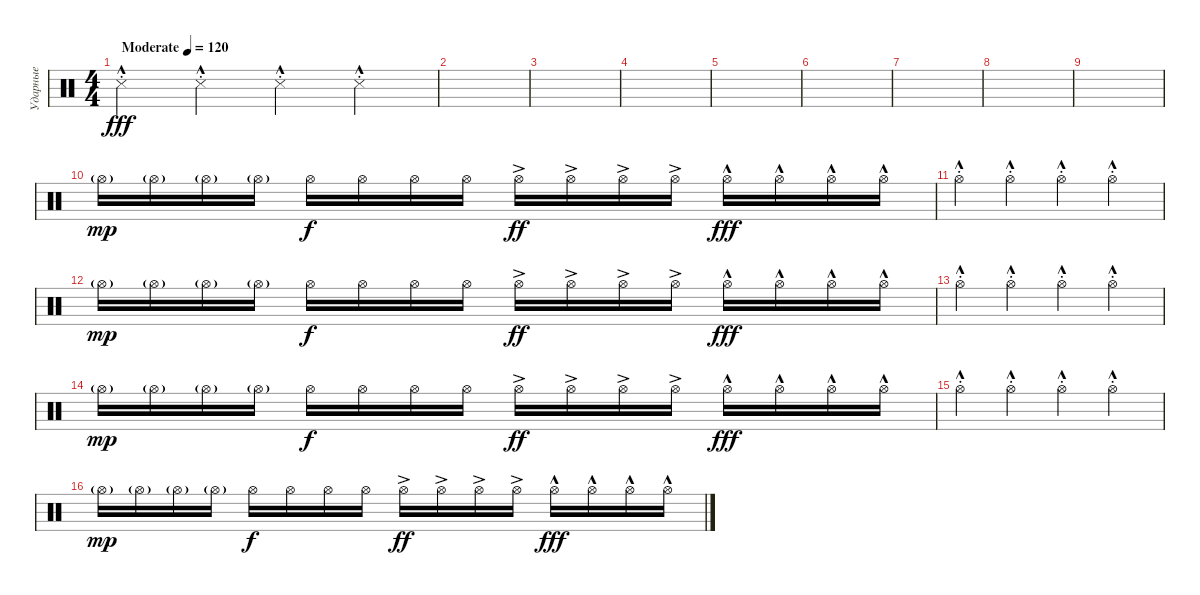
\track ("Ударные" "Ударные") {instrument percussion}
\staff {score}
\articulation defaults
\ts (4 4)
\tempo (120 "Moderate")
\clef neutral
\ks c "Snare (side stick) 3"{hac st}.4{dy fff} "Snare (side stick) 3"{hac st}.4 "Snare (side stick) 3"{hac st}.4 "Snare (side stick) 3"{hac st}.4
|
|
|
|
|
|
|
|
|
"Hi-Hat (open)"{g}.16{dy mp} "Hi-Hat (open)"{g}.16 "Hi-Hat (open)"{g}.16 "Hi-Hat (open)"{g}.16 "Hi-Hat (open)".16{dy f} "Hi-Hat (open)".16 "Hi-Hat (open)".16 "Hi-Hat (open)".16 "Hi-Hat (open)"{ac}.16{dy ff} "Hi-Hat (open)"{ac}.16 "Hi-Hat (open)"{ac}.16 "Hi-Hat (open)"{ac}.16 "Hi-Hat (open)"{hac}.16{dy fff} "Hi-Hat (open)"{hac}.16 "Hi-Hat (open)"{hac}.16 "Hi-Hat (open)"{hac}.16 |
"Hi-Hat (open)"{hac st}.4 "Hi-Hat (open)"{hac st}.4 "Hi-Hat (open)"{hac st}.4 "Hi-Hat (open)"{hac st}.4 |
"Hi-Hat (open)"{g}.16{dy mp} "Hi-Hat (open)"{g}.16 "Hi-Hat (open)"{g}.16 "Hi-Hat (open)"{g}.16 "Hi-Hat (open)".16{dy f} "Hi-Hat (open)".16 "Hi-Hat (open)".16 "Hi-Hat (open)".16 "Hi-Hat (open)"{ac}.16{dy ff} "Hi-Hat (open)"{ac}.16 "Hi-Hat (open)"{ac}.16 "Hi-Hat (open)"{ac}.16 "Hi-Hat (open)"{hac}.16{dy fff} "Hi-Hat (open)"{hac}.16 "Hi-Hat (open)"{hac}.16 "Hi-Hat (open)"{hac}.16 |
"Hi-Hat (open)"{hac st}.4 "Hi-Hat (open)"{hac st}.4 "Hi-Hat (open)"{hac st}.4 "Hi-Hat (open)"{hac st}.4 |
"Hi-Hat (open)"{g}.16{dy mp} "Hi-Hat (open)"{g}.16 "Hi-Hat (open)"{g}.16 "Hi-Hat (open)"{g}.16 "Hi-Hat (open)".16{dy f} "Hi-Hat (open)".16 "Hi-Hat (open)".16 "Hi-Hat (open)".16 "Hi-Hat (open)"{ac}.16{dy ff} "Hi-Hat (open)"{ac}.16 "Hi-Hat (open)"{ac}.16 "Hi-Hat (open)"{ac}.16 "Hi-Hat (open)"{hac}.16{dy fff} "Hi-Hat (open)"{hac}.16 "Hi-Hat (open)"{hac}.16 "Hi-Hat (open)"{hac}.16 |
"Hi-Hat (open)"{hac st}.4 "Hi-Hat (open)"{hac st}.4 "Hi-Hat (open)"{hac st}.4 "Hi-Hat (open)"{hac st}.4 |
"Hi-Hat (open)"{g}.16{dy mp} "Hi-Hat (open)"{g}.16 "Hi-Hat (open)"{g}.16 "Hi-Hat (open)"{g}.16 "Hi-Hat (open)".16{dy f} "Hi-Hat (open)".16 "Hi-Hat (open)".16 "Hi-Hat (open)".16 "Hi-Hat (open)"{ac}.16{dy ff} "Hi-Hat (open)"{ac}.16 "Hi-Hat (open)"{ac}.16 "Hi-Hat (open)"{ac}.16 "Hi-Hat (open)"{hac}.16{dy fff} "Hi-Hat (open)"{hac}.16 "Hi-Hat (open)"{hac}.16 "Hi-Hat (open)"{hac}.16
